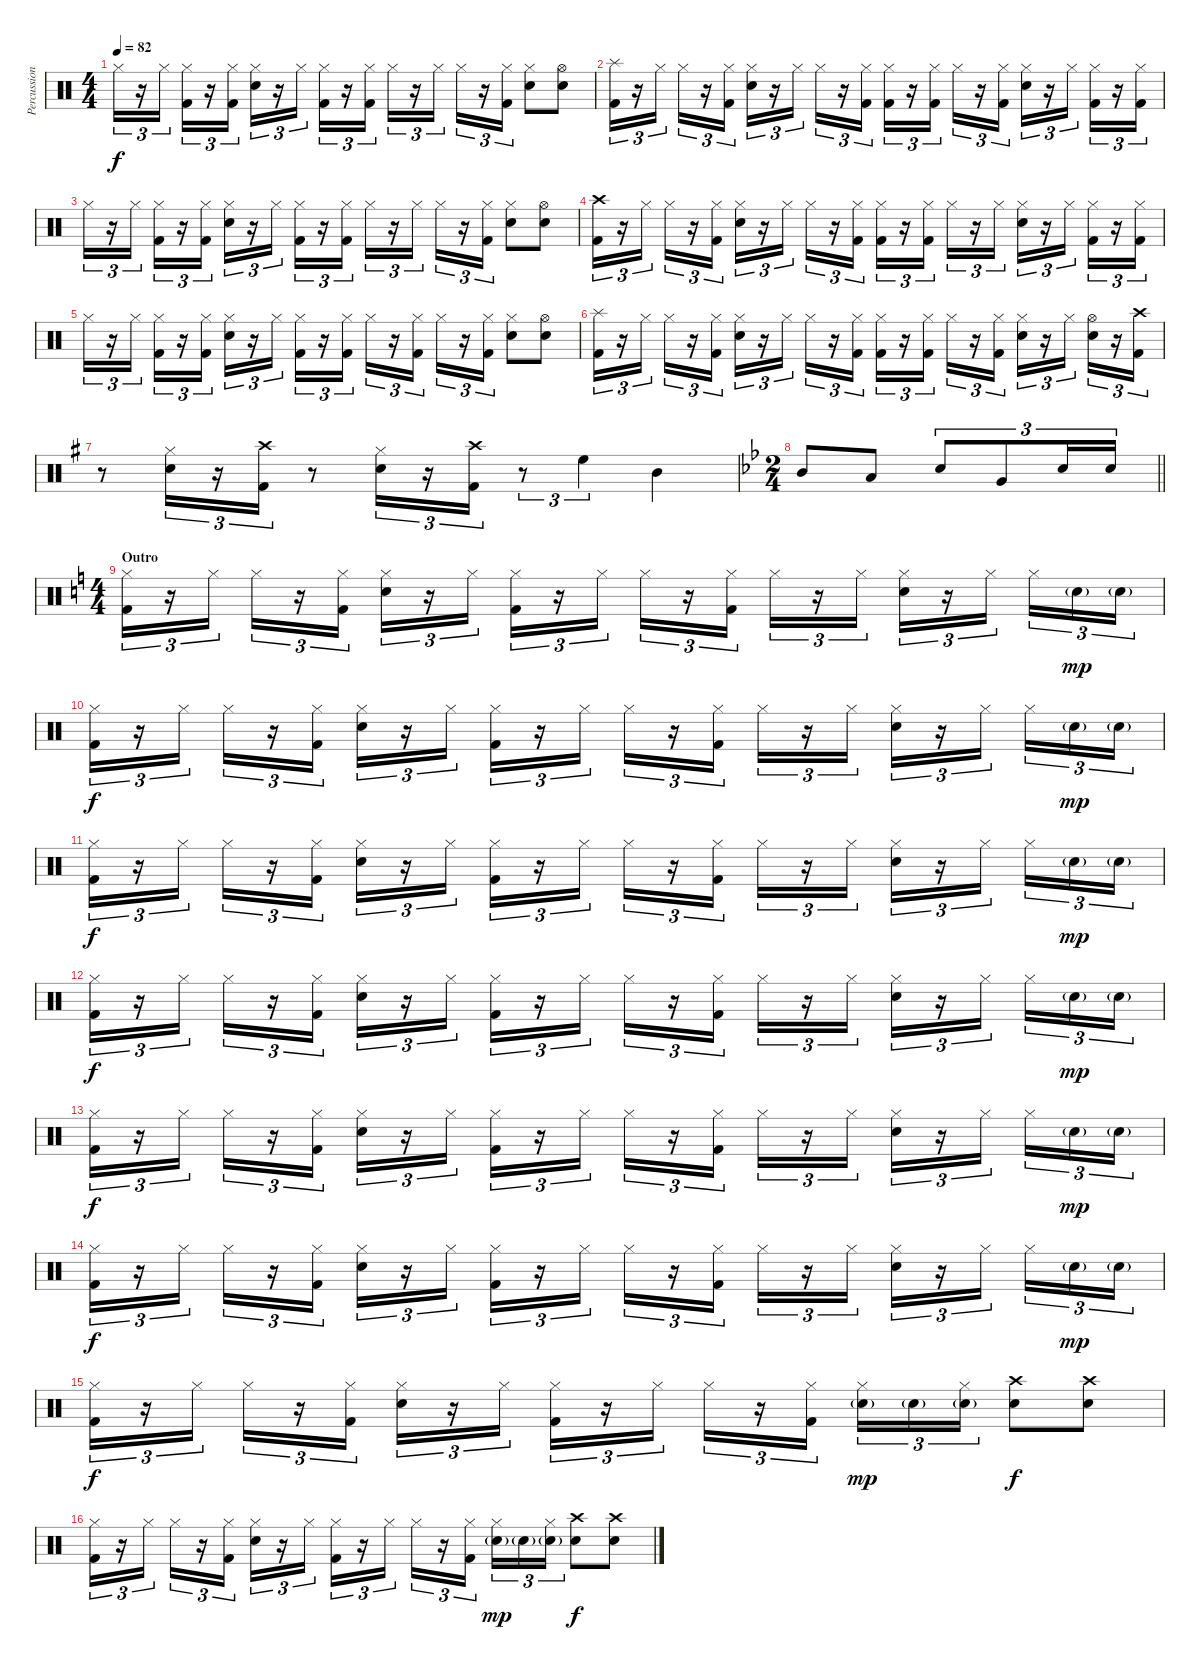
\track ("Percussioni" "Percussion") {instrument percussion}
\staff {score}
\articulation defaults
\ts (4 4)
\tempo 82
\clef neutral
\ks c "Hi-Hat (closed)".16{tu (3 2) dy f}
r.16{tu (3 2)} "Hi-Hat (closed)".16{tu (3 2)} ("Hi-Hat (closed)" "Kick (hit) 2").16{tu (3 2)} r.16{tu (3 2)} ("Hi-Hat (closed)" "Kick (hit) 2").16{tu (3 2)} ("Hi-Hat (closed)" "Snare (hit) 2").16{tu (3 2)} r.16{tu (3 2)} "Hi-Hat (closed)".16{tu (3 2)} ("Hi-Hat (closed)" "Kick (hit) 2").16{tu (3 2)} r.16{tu (3 2)} ("Hi-Hat (closed)" "Kick (hit) 2").16{tu (3 2)} "Hi-Hat (closed)".16{tu (3 2)} r.16{tu (3 2)} "Hi-Hat (closed)".16{tu (3 2)} "Hi-Hat (closed)".16{tu (3 2)} r.16{tu (3 2)} ("Hi-Hat (closed)" "Kick (hit) 2").16{tu (3 2)} ("Hi-Hat (closed)" "Snare (hit) 2").8 ("Hi-Hat (open)" "Snare (hit) 2").8 |
("Splash (hit)" "Kick (hit) 2").16{tu (3 2)} r.16{tu (3 2)} "Hi-Hat (closed)".16{tu (3 2)} "Hi-Hat (closed)".16{tu (3 2)} r.16{tu (3 2)} ("Hi-Hat (closed)" "Kick (hit) 2").16{tu (3 2)} ("Hi-Hat (closed)" "Snare (hit) 2").16{tu (3 2)} r.16{tu (3 2)} "Hi-Hat (closed)".16{tu (3 2)} "Hi-Hat (closed)".16{tu (3 2)} r.16{tu (3 2)} ("Hi-Hat (closed)" "Kick (hit) 2").16{tu (3 2)} ("Hi-Hat (closed)" "Kick (hit) 2").16{tu (3 2)} r.16{tu (3 2)} ("Hi-Hat (closed)" "Kick (hit) 2").16{tu (3 2)} "Hi-Hat (closed)".16{tu (3 2)} r.16{tu (3 2)} ("Hi-Hat (closed)" "Kick (hit) 2").16{tu (3 2)} ("Hi-Hat (closed)" "Snare (hit) 2").16{tu (3 2)} r.16{tu (3 2)} "Hi-Hat (closed)".16{tu (3 2)} ("Hi-Hat (closed)" "Kick (hit) 2").16{tu (3 2)} r.16{tu (3 2)} ("Hi-Hat (closed)" "Kick (hit) 2").16{tu (3 2)} |
"Hi-Hat (closed)".16{tu (3 2)} r.16{tu (3 2)} "Hi-Hat (closed)".16{tu (3 2)} ("Hi-Hat (closed)" "Kick (hit) 2").16{tu (3 2)} r.16{tu (3 2)} ("Hi-Hat (closed)" "Kick (hit) 2").16{tu (3 2)} ("Hi-Hat (closed)" "Snare (hit) 2").16{tu (3 2)} r.16{tu (3 2)} "Hi-Hat (closed)".16{tu (3 2)} ("Hi-Hat (closed)" "Kick (hit) 2").16{tu (3 2)} r.16{tu (3 2)} ("Hi-Hat (closed)" "Kick (hit) 2").16{tu (3 2)} "Hi-Hat (closed)".16{tu (3 2)} r.16{tu (3 2)} "Hi-Hat (closed)".16{tu (3 2)} "Hi-Hat (closed)".16{tu (3 2)} r.16{tu (3 2)} ("Hi-Hat (closed)" "Kick (hit) 2").16{tu (3 2)} ("Hi-Hat (closed)" "Snare (hit) 2").8 ("Hi-Hat (open)" "Snare (hit) 2").8 |
("Crash high (hit)" "Kick (hit) 2").16{tu (3 2)} r.16{tu (3 2)} "Hi-Hat (closed)".16{tu (3 2)} "Hi-Hat (closed)".16{tu (3 2)} r.16{tu (3 2)} ("Hi-Hat (closed)" "Kick (hit) 2").16{tu (3 2)} ("Hi-Hat (closed)" "Snare (hit) 2").16{tu (3 2)} r.16{tu (3 2)} "Hi-Hat (closed)".16{tu (3 2)} "Hi-Hat (closed)".16{tu (3 2)} r.16{tu (3 2)} ("Hi-Hat (closed)" "Kick (hit) 2").16{tu (3 2)} ("Hi-Hat (closed)" "Kick (hit) 2").16{tu (3 2)} r.16{tu (3 2)} ("Hi-Hat (closed)" "Kick (hit) 2").16{tu (3 2)} "Hi-Hat (closed)".16{tu (3 2)} r.16{tu (3 2)} "Hi-Hat (closed)".16{tu (3 2)} ("Hi-Hat (closed)" "Snare (hit) 2").16{tu (3 2)} r.16{tu (3 2)} "Hi-Hat (closed)".16{tu (3 2)} ("Hi-Hat (closed)" "Kick (hit) 2").16{tu (3 2)} r.16{tu (3 2)} ("Hi-Hat (closed)" "Kick (hit) 2").16{tu (3 2)} |
"Hi-Hat (closed)".16{tu (3 2)} r.16{tu (3 2)} "Hi-Hat (closed)".16{tu (3 2)} ("Hi-Hat (closed)" "Kick (hit) 2").16{tu (3 2)} r.16{tu (3 2)} ("Hi-Hat (closed)" "Kick (hit) 2").16{tu (3 2)} ("Hi-Hat (closed)" "Snare (hit) 2").16{tu (3 2)} r.16{tu (3 2)} "Hi-Hat (closed)".16{tu (3 2)} ("Hi-Hat (closed)" "Kick (hit) 2").16{tu (3 2)} r.16{tu (3 2)} ("Hi-Hat (closed)" "Kick (hit) 2").16{tu (3 2)} "Hi-Hat (closed)".16{tu (3 2)} r.16{tu (3 2)} ("Hi-Hat (closed)" "Kick (hit) 2").16{tu (3 2)} "Hi-Hat (closed)".16{tu (3 2)} r.16{tu (3 2)} ("Hi-Hat (closed)" "Kick (hit) 2").16{tu (3 2)} ("Hi-Hat (closed)" "Snare (hit) 2").8 ("Hi-Hat (open)" "Snare (hit) 2").8 |
("Splash (hit)" "Kick (hit) 2").16{tu (3 2)} r.16{tu (3 2)} "Hi-Hat (closed)".16{tu (3 2)} "Hi-Hat (closed)".16{tu (3 2)} r.16{tu (3 2)} ("Hi-Hat (closed)" "Kick (hit) 2").16{tu (3 2)} ("Hi-Hat (closed)" "Snare (hit) 2").16{tu (3 2)} r.16{tu (3 2)} "Hi-Hat (closed)".16{tu (3 2)} "Hi-Hat (closed)".16{tu (3 2)} r.16{tu (3 2)} ("Hi-Hat (closed)" "Kick (hit) 2").16{tu (3 2)} ("Hi-Hat (closed)" "Kick (hit) 2").16{tu (3 2)} r.16{tu (3 2)} ("Hi-Hat (closed)" "Kick (hit) 2").16{tu (3 2)} "Hi-Hat (closed)".16{tu (3 2)} r.16{tu (3 2)} ("Hi-Hat (closed)" "Kick (hit) 2").16{tu (3 2)} ("Hi-Hat (closed)" "Snare (hit) 2").16{tu (3 2)} r.16{tu (3 2)} "Hi-Hat (closed)".16{tu (3 2)} ("Hi-Hat (open)" "Snare (hit) 2").16{tu (3 2)} r.16{tu (3 2)} ("Crash high (hit)" "Kick (hit) 2").16{tu (3 2)} |
\ks g
r.8 ("Hi-Hat (closed)" "Snare (hit) 2").16{tu (3 2)} r.16{tu (3 2)} ("Crash high (hit)" "Kick (hit) 2").16{tu (3 2)} r.8 ("Hi-Hat (closed)" "Snare (hit) 2").16{tu (3 2)} r.16{tu (3 2)} ("Crash high (hit)" "Kick (hit) 2").16{tu (3 2)} r.8{tu (3 2)} "High Floor Tom (hit)".4{tu (3 2)} "Mid Tom (hit)".4 |
\ts (2 4)
\barLineRight lightlight
\ks bb "Mid Tom (hit)".8 "Low Floor Tom (hit)".8 "Snare (hit) 2".8{tu (3 2)} "Very Low Tom (hit)".8{tu (3 2)} "Snare (hit) 2".16{tu (3 2)} "Snare (hit) 2".16{tu (3 2)}
|
\ts (4 4)
\section ("" "Outro")
\ks c
("Hi-Hat (closed)" "Kick (hit) 2").16{tu (3 2)} r.16{tu (3 2)} "Hi-Hat (closed)".16{tu (3 2)} "Hi-Hat (closed)".16{tu (3 2)} r.16{tu (3 2)} ("Hi-Hat (closed)" "Kick (hit) 2").16{tu (3 2)} ("Hi-Hat (closed)" "Snare (hit) 2").16{tu (3 2)} r.16{tu (3 2)} "Hi-Hat (closed)".16{tu (3 2)} ("Hi-Hat (closed)" "Kick (hit) 2").16{tu (3 2)} r.16{tu (3 2)} "Hi-Hat (closed)".16{tu (3 2)} "Hi-Hat (closed)".16{tu (3 2)} r.16{tu (3 2)} ("Hi-Hat (closed)" "Kick (hit) 2").16{tu (3 2)} "Hi-Hat (closed)".16{tu (3 2)} r.16{tu (3 2)} "Hi-Hat (closed)".16{tu (3 2)} ("Hi-Hat (closed)" "Snare (hit) 2").16{tu (3 2)} r.16{tu (3 2)} "Hi-Hat (closed)".16{tu (3 2)} "Hi-Hat (closed)".16{tu (3 2)} "Snare (hit) 2"{g}.16{tu (3 2) dy mp} "Snare (hit) 2"{g}.16{tu (3 2)} |
("Hi-Hat (closed)" "Kick (hit) 2").16{tu (3 2) dy f} r.16{tu (3 2)} "Hi-Hat (closed)".16{tu (3 2)} "Hi-Hat (closed)".16{tu (3 2)} r.16{tu (3 2)} ("Hi-Hat (closed)" "Kick (hit) 2").16{tu (3 2)} ("Hi-Hat (closed)" "Snare (hit) 2").16{tu (3 2)} r.16{tu (3 2)} "Hi-Hat (closed)".16{tu (3 2)} ("Hi-Hat (closed)" "Kick (hit) 2").16{tu (3 2)} r.16{tu (3 2)} "Hi-Hat (closed)".16{tu (3 2)} "Hi-Hat (closed)".16{tu (3 2)} r.16{tu (3 2)} ("Hi-Hat (closed)" "Kick (hit) 2").16{tu (3 2)} "Hi-Hat (closed)".16{tu (3 2)} r.16{tu (3 2)} "Hi-Hat (closed)".16{tu (3 2)} ("Hi-Hat (closed)" "Snare (hit) 2").16{tu (3 2)} r.16{tu (3 2)} "Hi-Hat (closed)".16{tu (3 2)} "Hi-Hat (closed)".16{tu (3 2)} "Snare (hit) 2"{g}.16{tu (3 2) dy mp} "Snare (hit) 2"{g}.16{tu (3 2)} |
("Hi-Hat (closed)" "Kick (hit) 2").16{tu (3 2) dy f} r.16{tu (3 2)} "Hi-Hat (closed)".16{tu (3 2)} "Hi-Hat (closed)".16{tu (3 2)} r.16{tu (3 2)} ("Hi-Hat (closed)" "Kick (hit) 2").16{tu (3 2)} ("Hi-Hat (closed)" "Snare (hit) 2").16{tu (3 2)} r.16{tu (3 2)} "Hi-Hat (closed)".16{tu (3 2)} ("Hi-Hat (closed)" "Kick (hit) 2").16{tu (3 2)} r.16{tu (3 2)} "Hi-Hat (closed)".16{tu (3 2)} "Hi-Hat (closed)".16{tu (3 2)} r.16{tu (3 2)} ("Hi-Hat (closed)" "Kick (hit) 2").16{tu (3 2)} "Hi-Hat (closed)".16{tu (3 2)} r.16{tu (3 2)} "Hi-Hat (closed)".16{tu (3 2)} ("Hi-Hat (closed)" "Snare (hit) 2").16{tu (3 2)} r.16{tu (3 2)} "Hi-Hat (closed)".16{tu (3 2)} "Hi-Hat (closed)".16{tu (3 2)} "Snare (hit) 2"{g}.16{tu (3 2) dy mp} "Snare (hit) 2"{g}.16{tu (3 2)} |
("Hi-Hat (closed)" "Kick (hit) 2").16{tu (3 2) dy f} r.16{tu (3 2)} "Hi-Hat (closed)".16{tu (3 2)} "Hi-Hat (closed)".16{tu (3 2)} r.16{tu (3 2)} ("Hi-Hat (closed)" "Kick (hit) 2").16{tu (3 2)} ("Hi-Hat (closed)" "Snare (hit) 2").16{tu (3 2)} r.16{tu (3 2)} "Hi-Hat (closed)".16{tu (3 2)} ("Hi-Hat (closed)" "Kick (hit) 2").16{tu (3 2)} r.16{tu (3 2)} "Hi-Hat (closed)".16{tu (3 2)} "Hi-Hat (closed)".16{tu (3 2)} r.16{tu (3 2)} ("Hi-Hat (closed)" "Kick (hit) 2").16{tu (3 2)} "Hi-Hat (closed)".16{tu (3 2)} r.16{tu (3 2)} "Hi-Hat (closed)".16{tu (3 2)} ("Hi-Hat (closed)" "Snare (hit) 2").16{tu (3 2)} r.16{tu (3 2)} "Hi-Hat (closed)".16{tu (3 2)} "Hi-Hat (closed)".16{tu (3 2)} "Snare (hit) 2"{g}.16{tu (3 2) dy mp} "Snare (hit) 2"{g}.16{tu (3 2)} |
("Hi-Hat (closed)" "Kick (hit) 2").16{tu (3 2) dy f} r.16{tu (3 2)} "Hi-Hat (closed)".16{tu (3 2)} "Hi-Hat (closed)".16{tu (3 2)} r.16{tu (3 2)} ("Hi-Hat (closed)" "Kick (hit) 2").16{tu (3 2)} ("Hi-Hat (closed)" "Snare (hit) 2").16{tu (3 2)} r.16{tu (3 2)} "Hi-Hat (closed)".16{tu (3 2)} ("Hi-Hat (closed)" "Kick (hit) 2").16{tu (3 2)} r.16{tu (3 2)} "Hi-Hat (closed)".16{tu (3 2)} "Hi-Hat (closed)".16{tu (3 2)} r.16{tu (3 2)} ("Hi-Hat (closed)" "Kick (hit) 2").16{tu (3 2)} "Hi-Hat (closed)".16{tu (3 2)} r.16{tu (3 2)} "Hi-Hat (closed)".16{tu (3 2)} ("Hi-Hat (closed)" "Snare (hit) 2").16{tu (3 2)} r.16{tu (3 2)} "Hi-Hat (closed)".16{tu (3 2)} "Hi-Hat (closed)".16{tu (3 2)} "Snare (hit) 2"{g}.16{tu (3 2) dy mp} "Snare (hit) 2"{g}.16{tu (3 2)} |
("Hi-Hat (closed)" "Kick (hit) 2").16{tu (3 2) dy f} r.16{tu (3 2)} "Hi-Hat (closed)".16{tu (3 2)} "Hi-Hat (closed)".16{tu (3 2)} r.16{tu (3 2)} ("Hi-Hat (closed)" "Kick (hit) 2").16{tu (3 2)} ("Hi-Hat (closed)" "Snare (hit) 2").16{tu (3 2)} r.16{tu (3 2)} "Hi-Hat (closed)".16{tu (3 2)} ("Hi-Hat (closed)" "Kick (hit) 2").16{tu (3 2)} r.16{tu (3 2)} "Hi-Hat (closed)".16{tu (3 2)} "Hi-Hat (closed)".16{tu (3 2)} r.16{tu (3 2)} ("Hi-Hat (closed)" "Kick (hit) 2").16{tu (3 2)} "Hi-Hat (closed)".16{tu (3 2)} r.16{tu (3 2)} "Hi-Hat (closed)".16{tu (3 2)} ("Hi-Hat (closed)" "Snare (hit) 2").16{tu (3 2)} r.16{tu (3 2)} "Hi-Hat (closed)".16{tu (3 2)} "Hi-Hat (closed)".16{tu (3 2)} "Snare (hit) 2"{g}.16{tu (3 2) dy mp} "Snare (hit) 2"{g}.16{tu (3 2)} |
("Hi-Hat (closed)" "Kick (hit) 2").16{tu (3 2) dy f} r.16{tu (3 2)} "Hi-Hat (closed)".16{tu (3 2)} "Hi-Hat (closed)".16{tu (3 2)} r.16{tu (3 2)} ("Hi-Hat (closed)" "Kick (hit) 2").16{tu (3 2)} ("Hi-Hat (closed)" "Snare (hit) 2").16{tu (3 2)} r.16{tu (3 2)} "Hi-Hat (closed)".16{tu (3 2)} ("Hi-Hat (closed)" "Kick (hit) 2").16{tu (3 2)} r.16{tu (3 2)} "Hi-Hat (closed)".16{tu (3 2)} "Hi-Hat (closed)".16{tu (3 2)} r.16{tu (3 2)} ("Hi-Hat (closed)" "Kick (hit) 2").16{tu (3 2)} ("Hi-Hat (closed)" "Snare (hit) 2"{g}).16{tu (3 2) dy mp} "Snare (hit) 2"{g}.16{tu (3 2)} ("Hi-Hat (closed)" "Snare (hit) 2"{g}).16{tu (3 2)} ("Crash high (hit)" "Snare (hit) 2").8{dy f} ("Crash high (hit)" "Snare (hit) 2").8 |
("Hi-Hat (closed)" "Kick (hit) 2").16{tu (3 2)} r.16{tu (3 2)} "Hi-Hat (closed)".16{tu (3 2)} "Hi-Hat (closed)".16{tu (3 2)} r.16{tu (3 2)} ("Hi-Hat (closed)" "Kick (hit) 2").16{tu (3 2)} ("Hi-Hat (closed)" "Snare (hit) 2").16{tu (3 2)} r.16{tu (3 2)} "Hi-Hat (closed)".16{tu (3 2)} ("Hi-Hat (closed)" "Kick (hit) 2").16{tu (3 2)} r.16{tu (3 2)} "Hi-Hat (closed)".16{tu (3 2)} "Hi-Hat (closed)".16{tu (3 2)} r.16{tu (3 2)} ("Hi-Hat (closed)" "Kick (hit) 2").16{tu (3 2)} ("Hi-Hat (closed)" "Snare (hit) 2"{g}).16{tu (3 2) dy mp} "Snare (hit) 2"{g}.16{tu (3 2)} ("Hi-Hat (closed)" "Snare (hit) 2"{g}).16{tu (3 2)} ("Crash high (hit)" "Snare (hit) 2").8{dy f} ("Crash high (hit)" "Snare (hit) 2").8
